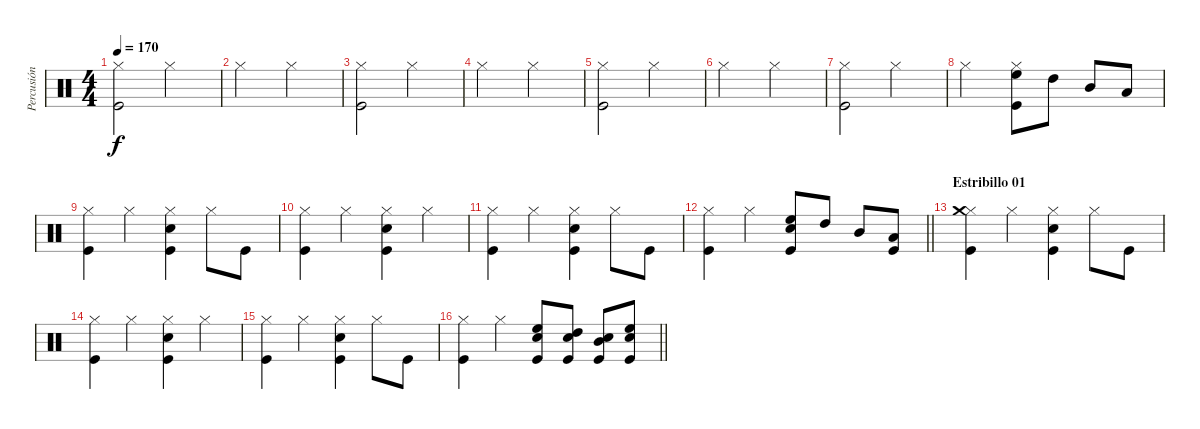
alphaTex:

\track ("Percusión" "Percusión") {instrument percussion}
\staff {score}
\articulation defaults
\ts (4 4)
\tempo 170
\clef neutral
\ks c
("Hi-Hat (closed)" "Kick (hit)").2{dy f} "Hi-Hat (closed)".2 |
"Hi-Hat (closed)".2 "Hi-Hat (closed)".2 |
("Hi-Hat (closed)" "Kick (hit)").2 "Hi-Hat (closed)".2 |
"Hi-Hat (closed)".2 "Hi-Hat (closed)".2 |
("Hi-Hat (closed)" "Kick (hit)").2 "Hi-Hat (closed)".2 |
"Hi-Hat (closed)".2 "Hi-Hat (closed)".2 |
("Hi-Hat (closed)" "Kick (hit)").2 "Hi-Hat (closed)".2 |
"Hi-Hat (closed)".2 ("Hi-Hat (closed)" "High Floor Tom (hit)" "Kick (hit)").8 "High Tom (hit)".8 "Mid Tom (hit)".8 "Low Tom (hit)".8 |
("Hi-Hat (closed)" "Kick (hit)").4 "Hi-Hat (closed)".4 ("Hi-Hat (closed)" "Snare (hit) 2" "Kick (hit)").4 "Hi-Hat (closed)".8 "Kick (hit)".8 |
("Hi-Hat (closed)" "Kick (hit)").4 "Hi-Hat (closed)".4 ("Hi-Hat (closed)" "Snare (hit) 2" "Kick (hit)").4 "Hi-Hat (closed)".4 |
("Hi-Hat (closed)" "Kick (hit)").4 "Hi-Hat (closed)".4 ("Hi-Hat (closed)" "Snare (hit) 2" "Kick (hit)").4 "Hi-Hat (closed)".8 "Kick (hit)".8 |
\barLineRight lightlight
("Hi-Hat (closed)" "Kick (hit)").4 "Hi-Hat (closed)".4 ("High Floor Tom (hit)" "Snare (hit) 2" "Kick (hit)").8 "High Tom (hit)".8 "Mid Tom (hit)".8 ("Low Tom (hit)" "Kick (hit)").8 |
\section ("" "Estribillo 01")
("Hi-Hat (closed)" "Crash medium (hit)" "Kick (hit)").4 "Hi-Hat (closed)".4 ("Hi-Hat (closed)" "Snare (hit) 2" "Kick (hit)").4 "Hi-Hat (closed)".8 "Kick (hit)".8 |
("Hi-Hat (closed)" "Kick (hit)").4 "Hi-Hat (closed)".4 ("Hi-Hat (closed)" "Snare (hit) 2" "Kick (hit)").4 "Hi-Hat (closed)".4 |
("Hi-Hat (closed)" "Kick (hit)").4 "Hi-Hat (closed)".4 ("Hi-Hat (closed)" "Snare (hit) 2" "Kick (hit)").4 "Hi-Hat (closed)".8 "Kick (hit)".8 |
\barLineRight lightlight
("Hi-Hat (closed)" "Kick (hit)").4 "Hi-Hat (closed)".4 ("Snare (hit) 2" "High Floor Tom (hit)" "Kick (hit)").8 ("Snare (hit) 2" "High Tom (hit)" "Kick (hit)").8 ("Snare (hit) 2" "Mid Tom (hit)" "Kick (hit)").8 ("Snare (hit) 2" "High Floor Tom (hit)" "Kick (hit)").8
